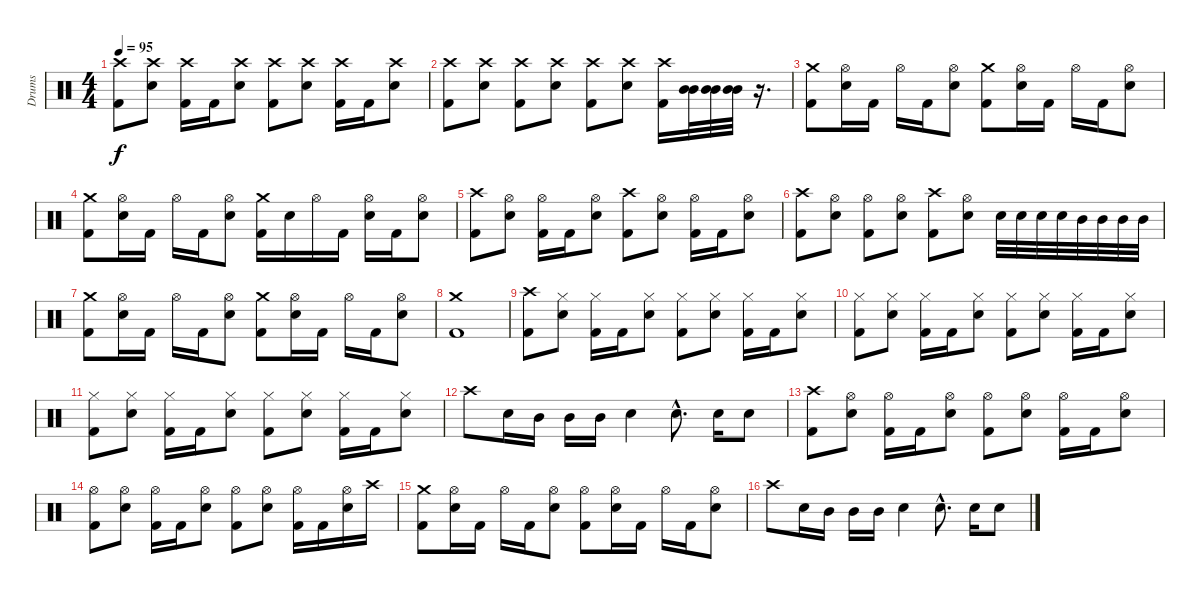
\track ("Drums" "Drums") {instrument percussion}
\staff {score}
\articulation defaults
\ts (4 4)
\tempo 95
\clef neutral
\ks c
("Crash high (hit)" "Kick (hit) 2").8{dy f} ("Crash high (hit)" "Electric Snare (hit)").8 ("Crash high (hit)" "Kick (hit) 2").16 "Kick (hit) 2".16 ("Crash high (hit)" "Electric Snare (hit)").8 ("Crash high (hit)" "Kick (hit) 2").8 ("Crash high (hit)" "Electric Snare (hit)").8 ("Crash high (hit)" "Kick (hit) 2").16 "Kick (hit) 2".16 ("Crash high (hit)" "Electric Snare (hit)").8 |
("Crash high (hit)" "Kick (hit) 2").8 ("Crash high (hit)" "Electric Snare (hit)").8 ("Crash high (hit)" "Kick (hit) 2").8 ("Crash high (hit)" "Electric Snare (hit)").8 ("Crash high (hit)" "Kick (hit) 2").8 ("Crash high (hit)" "Electric Snare (hit)").8 ("Crash high (hit)" "Kick (hit) 2").16 ("Mid Tom (hit)" "Mid Tom (hit)").32 ("Mid Tom (hit)" "Mid Tom (hit)").32 ("Mid Tom (hit)" "Mid Tom (hit)").32 r.16{d} |
("Crash medium (hit)" "Kick (hit) 2").8 ("Hi-Hat (open)" "Electric Snare (hit)").16 "Kick (hit) 2".16 "Hi-Hat (open)".16 "Kick (hit) 2".16 ("Hi-Hat (open)" "Electric Snare (hit)").8 ("Crash medium (hit)" "Kick (hit) 2").8 ("Hi-Hat (open)" "Electric Snare (hit)").16 "Kick (hit) 2".16 "Hi-Hat (open)".16 "Kick (hit) 2".16 ("Hi-Hat (open)" "Electric Snare (hit)").8 |
("Crash medium (hit)" "Kick (hit) 2").8 ("Hi-Hat (open)" "Electric Snare (hit)").16 "Kick (hit) 2".16 "Hi-Hat (open)".16 "Kick (hit) 2".16 ("Hi-Hat (open)" "Electric Snare (hit)").8 ("Crash medium (hit)" "Kick (hit) 2").16 "Electric Snare (hit)".16 "Hi-Hat (open)".16 "Kick (hit) 2".16 ("Hi-Hat (open)" "Electric Snare (hit)").16 "Kick (hit) 2".16 ("Hi-Hat (open)" "Electric Snare (hit)").8 |
("Crash high (hit)" "Kick (hit) 2").8 ("Hi-Hat (open)" "Electric Snare (hit)").8 ("Hi-Hat (open)" "Kick (hit) 2").16 "Kick (hit) 2".16 ("Hi-Hat (open)" "Electric Snare (hit)").8 ("Crash high (hit)" "Kick (hit) 2").8 ("Hi-Hat (open)" "Electric Snare (hit)").8 ("Hi-Hat (open)" "Kick (hit) 2").16 "Kick (hit) 2".16 ("Hi-Hat (open)" "Electric Snare (hit)").8 |
("Crash high (hit)" "Kick (hit) 2").8 ("Hi-Hat (open)" "Electric Snare (hit)").8 ("Hi-Hat (open)" "Kick (hit) 2").8 ("Hi-Hat (open)" "Electric Snare (hit)").8 ("Crash high (hit)" "Kick (hit) 2").8 ("Hi-Hat (open)" "Electric Snare (hit)").8 "Electric Snare (hit)".32 "Electric Snare (hit)".32 "Electric Snare (hit)".32 "Electric Snare (hit)".32 "Mid Tom (hit)".32 "Mid Tom (hit)".32 "Mid Tom (hit)".32 "Mid Tom (hit)".32 |
("Crash medium (hit)" "Kick (hit) 2").8 ("Hi-Hat (open)" "Electric Snare (hit)").16 "Kick (hit) 2".16 "Hi-Hat (open)".16 "Kick (hit) 2".16 ("Hi-Hat (open)" "Electric Snare (hit)").8 ("Crash medium (hit)" "Kick (hit) 2").8 ("Hi-Hat (open)" "Electric Snare (hit)").16 "Kick (hit) 2".16 "Hi-Hat (open)".16 "Kick (hit) 2".16 ("Hi-Hat (open)" "Electric Snare (hit)").8 |
("Crash medium (hit)" "Kick (hit) 2").1 |
("Crash high (hit)" "Kick (hit) 2").8 ("Hi-Hat (closed)" "Electric Snare (hit)").8 ("Hi-Hat (closed)" "Kick (hit) 2").16 "Kick (hit) 2".16 ("Hi-Hat (closed)" "Electric Snare (hit)").8 ("Hi-Hat (closed)" "Kick (hit) 2").8 ("Hi-Hat (closed)" "Electric Snare (hit)").8 ("Hi-Hat (closed)" "Kick (hit) 2").16 "Kick (hit) 2".16 ("Hi-Hat (closed)" "Electric Snare (hit)").8 |
("Hi-Hat (closed)" "Kick (hit) 2").8 ("Hi-Hat (closed)" "Electric Snare (hit)").8 ("Hi-Hat (closed)" "Kick (hit) 2").16 "Kick (hit) 2".16 ("Hi-Hat (closed)" "Electric Snare (hit)").8 ("Hi-Hat (closed)" "Kick (hit) 2").8 ("Hi-Hat (closed)" "Electric Snare (hit)").8 ("Hi-Hat (closed)" "Kick (hit) 2").16 "Kick (hit) 2".16 ("Hi-Hat (closed)" "Electric Snare (hit)").8 |
("Hi-Hat (closed)" "Kick (hit) 2").8 ("Hi-Hat (closed)" "Electric Snare (hit)").8 ("Hi-Hat (closed)" "Kick (hit) 2").16 "Kick (hit) 2".16 ("Hi-Hat (closed)" "Electric Snare (hit)").8 ("Hi-Hat (closed)" "Kick (hit) 2").8 ("Hi-Hat (closed)" "Electric Snare (hit)").8 ("Hi-Hat (closed)" "Kick (hit) 2").16 "Kick (hit) 2".16 ("Hi-Hat (closed)" "Electric Snare (hit)").8 |
"Crash high (hit)".8 "Electric Snare (hit)".16 "Mid Tom (hit)".16 "Mid Tom (hit)".16 "Mid Tom (hit)".16 "Electric Snare (hit)".4 "Electric Snare (hit)"{hac}.8{d} "Electric Snare (hit)".16 "Electric Snare (hit)".8 |
("Crash high (hit)" "Kick (hit) 2").8 ("Hi-Hat (open)" "Electric Snare (hit)").8 ("Hi-Hat (open)" "Kick (hit) 2").16 "Kick (hit) 2".16 ("Hi-Hat (open)" "Electric Snare (hit)").8 ("Hi-Hat (open)" "Kick (hit) 2").8 ("Hi-Hat (open)" "Electric Snare (hit)").8 ("Hi-Hat (open)" "Kick (hit) 2").16 "Kick (hit) 2".16 ("Hi-Hat (open)" "Electric Snare (hit)").8 |
("Hi-Hat (open)" "Kick (hit) 2").8 ("Hi-Hat (open)" "Electric Snare (hit)").8 ("Hi-Hat (open)" "Kick (hit) 2").16 "Kick (hit) 2".16 ("Hi-Hat (open)" "Electric Snare (hit)").8 ("Hi-Hat (open)" "Kick (hit) 2").8 ("Hi-Hat (open)" "Electric Snare (hit)").8 ("Hi-Hat (open)" "Kick (hit) 2").16 "Kick (hit) 2".16 ("Hi-Hat (open)" "Electric Snare (hit)").16 "Crash high (hit)".16 |
("Crash medium (hit)" "Kick (hit) 2").8 ("Hi-Hat (open)" "Electric Snare (hit)").16 "Kick (hit) 2".16 "Hi-Hat (open)".16 "Kick (hit) 2".16 ("Hi-Hat (open)" "Electric Snare (hit)").8 ("Hi-Hat (open)" "Kick (hit) 2").8 ("Hi-Hat (open)" "Electric Snare (hit)").16 "Kick (hit) 2".16 "Hi-Hat (open)".16 "Kick (hit) 2".16 ("Hi-Hat (open)" "Electric Snare (hit)").8 |
"Crash high (hit)".8 "Electric Snare (hit)".16 "Mid Tom (hit)".16 "Mid Tom (hit)".16 "Mid Tom (hit)".16 "Electric Snare (hit)".4 "Electric Snare (hit)"{hac}.8{d} "Electric Snare (hit)".16 "Electric Snare (hit)".8
